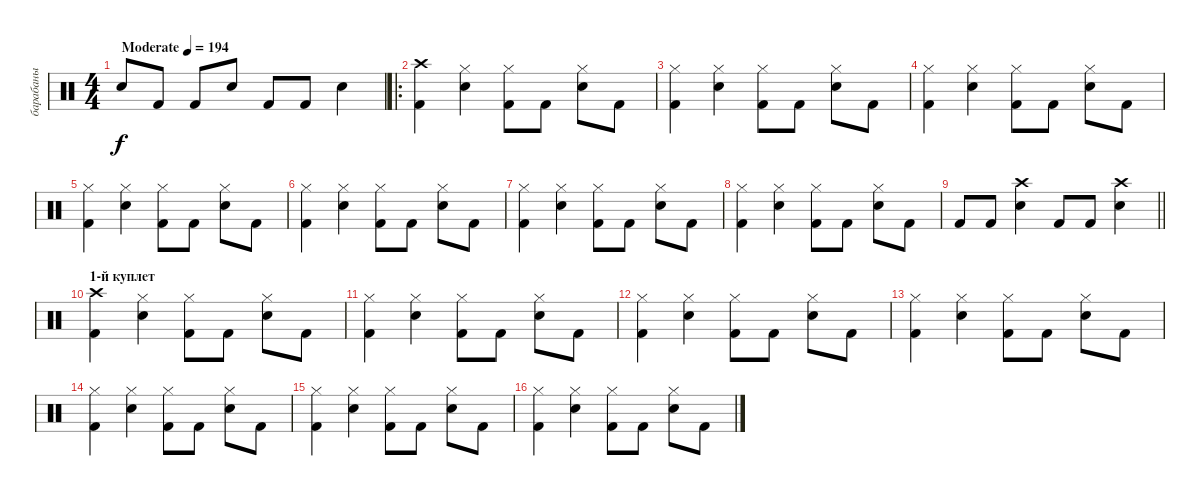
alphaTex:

\track ("барабаны" "барабаны") {instrument percussion}
\staff {score}
\articulation defaults
\ts (4 4)
\tempo (194 "Moderate")
\clef neutral
\ks c "Snare (hit) 2".8{dy f} "Kick (hit) 2".8 "Kick (hit) 2".8 "Snare (hit) 2".8 "Kick (hit) 2".8 "Kick (hit) 2".8 "Snare (hit) 2".4
|
\ro
("Crash high (hit)" "Kick (hit) 2").4 ("Hi-Hat (closed)" "Snare (hit) 2").4 ("Hi-Hat (closed)" "Kick (hit) 2").8 "Kick (hit) 2".8 ("Hi-Hat (closed)" "Snare (hit) 2").8 "Kick (hit) 2".8 |
("Hi-Hat (closed)" "Kick (hit) 2").4 ("Hi-Hat (closed)" "Snare (hit) 2").4 ("Hi-Hat (closed)" "Kick (hit) 2").8 "Kick (hit) 2".8 ("Hi-Hat (closed)" "Snare (hit) 2").8 "Kick (hit) 2".8 |
("Hi-Hat (closed)" "Kick (hit) 2").4 ("Hi-Hat (closed)" "Snare (hit) 2").4 ("Hi-Hat (closed)" "Kick (hit) 2").8 "Kick (hit) 2".8 ("Hi-Hat (closed)" "Snare (hit) 2").8 "Kick (hit) 2".8 |
("Hi-Hat (closed)" "Kick (hit) 2").4 ("Hi-Hat (closed)" "Snare (hit) 2").4 ("Hi-Hat (closed)" "Kick (hit) 2").8 "Kick (hit) 2".8 ("Hi-Hat (closed)" "Snare (hit) 2").8 "Kick (hit) 2".8 |
("Hi-Hat (closed)" "Kick (hit) 2").4 ("Hi-Hat (closed)" "Snare (hit) 2").4 ("Hi-Hat (closed)" "Kick (hit) 2").8 "Kick (hit) 2".8 ("Hi-Hat (closed)" "Snare (hit) 2").8 "Kick (hit) 2".8 |
("Hi-Hat (closed)" "Kick (hit) 2").4 ("Hi-Hat (closed)" "Snare (hit) 2").4 ("Hi-Hat (closed)" "Kick (hit) 2").8 "Kick (hit) 2".8 ("Hi-Hat (closed)" "Snare (hit) 2").8 "Kick (hit) 2".8 |
("Hi-Hat (closed)" "Kick (hit) 2").4 ("Hi-Hat (closed)" "Snare (hit) 2").4 ("Hi-Hat (closed)" "Kick (hit) 2").8 "Kick (hit) 2".8 ("Hi-Hat (closed)" "Snare (hit) 2").8 "Kick (hit) 2".8 |
\barLineRight lightlight "Kick (hit) 2".8 "Kick (hit) 2".8
("Crash high (hit)" "Snare (hit) 2").4 "Kick (hit) 2".8 "Kick (hit) 2".8 ("Crash high (hit)" "Snare (hit) 2").4 |
\section ("" "1-й куплет")
("Crash high (hit)" "Kick (hit) 2").4 ("Hi-Hat (closed)" "Snare (hit) 2").4 ("Hi-Hat (closed)" "Kick (hit) 2").8 "Kick (hit) 2".8 ("Hi-Hat (closed)" "Snare (hit) 2").8 "Kick (hit) 2".8 |
("Hi-Hat (closed)" "Kick (hit) 2").4 ("Hi-Hat (closed)" "Snare (hit) 2").4 ("Hi-Hat (closed)" "Kick (hit) 2").8 "Kick (hit) 2".8 ("Hi-Hat (closed)" "Snare (hit) 2").8 "Kick (hit) 2".8 |
("Hi-Hat (closed)" "Kick (hit) 2").4 ("Hi-Hat (closed)" "Snare (hit) 2").4 ("Hi-Hat (closed)" "Kick (hit) 2").8 "Kick (hit) 2".8 ("Hi-Hat (closed)" "Snare (hit) 2").8 "Kick (hit) 2".8 |
("Hi-Hat (closed)" "Kick (hit) 2").4 ("Hi-Hat (closed)" "Snare (hit) 2").4 ("Hi-Hat (closed)" "Kick (hit) 2").8 "Kick (hit) 2".8 ("Hi-Hat (closed)" "Snare (hit) 2").8 "Kick (hit) 2".8 |
("Hi-Hat (closed)" "Kick (hit) 2").4 ("Hi-Hat (closed)" "Snare (hit) 2").4 ("Hi-Hat (closed)" "Kick (hit) 2").8 "Kick (hit) 2".8 ("Hi-Hat (closed)" "Snare (hit) 2").8 "Kick (hit) 2".8 |
("Hi-Hat (closed)" "Kick (hit) 2").4 ("Hi-Hat (closed)" "Snare (hit) 2").4 ("Hi-Hat (closed)" "Kick (hit) 2").8 "Kick (hit) 2".8 ("Hi-Hat (closed)" "Snare (hit) 2").8 "Kick (hit) 2".8 |
("Hi-Hat (closed)" "Kick (hit) 2").4 ("Hi-Hat (closed)" "Snare (hit) 2").4 ("Hi-Hat (closed)" "Kick (hit) 2").8 "Kick (hit) 2".8 ("Hi-Hat (closed)" "Snare (hit) 2").8 "Kick (hit) 2".8
